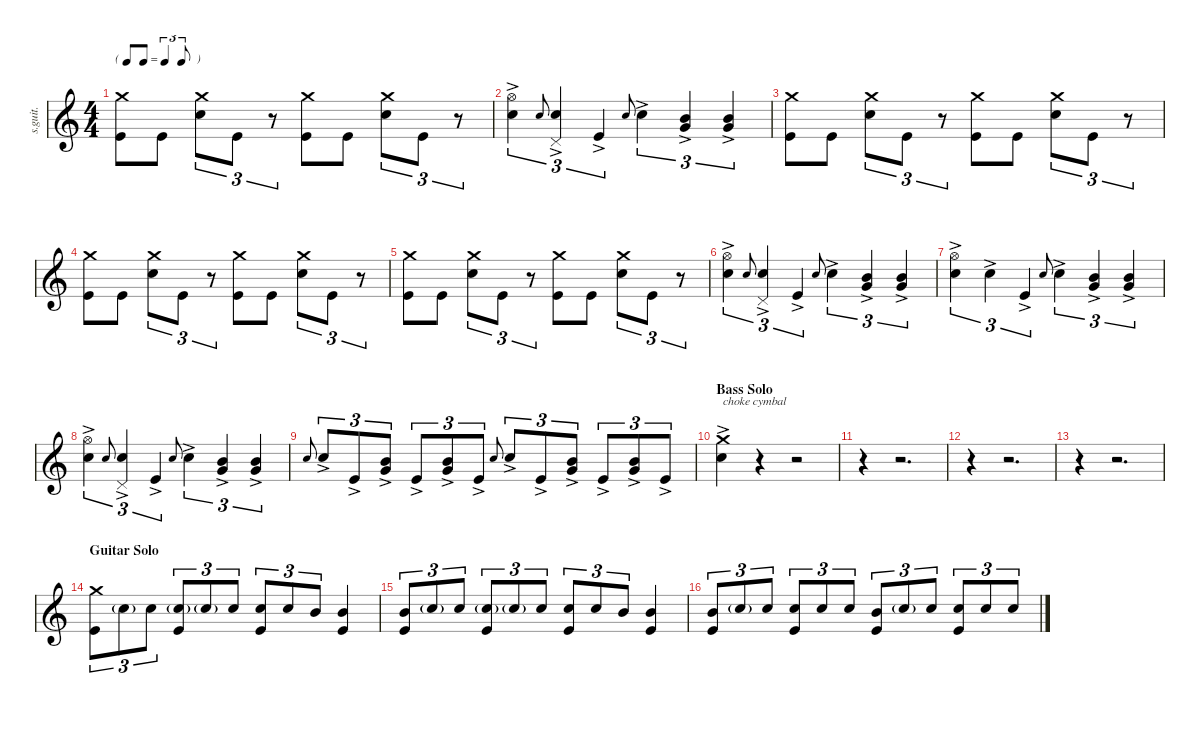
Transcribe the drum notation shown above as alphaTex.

\defaultSystemsLayout 4
\hideDynamics
\bracketExtendMode nobrackets
\track ("Dave Grohl" "s.guit.") {instrument percussion}
\staff {score}
\articulation defaults
\ts (4 4)
\tf triplet8th
\tempo (171 hide)
\clef g2
\ks c
("Kick (hit)" "Crash medium (hit)").8{lyrics (0 "") lyrics (1 "") lyrics (2 "") lyrics (3 "") lyrics (4 "") dy mf} "Kick (hit)".8{lyrics (0 "") lyrics (1 "") lyrics (2 "") lyrics (3 "") lyrics (4 "")} ("Crash medium (hit)" "Snare (hit) 2").8{tu (3 2) lyrics (0 "") lyrics (1 "") lyrics (2 "") lyrics (3 "") lyrics (4 "")} "Kick (hit)".8{tu (3 2) lyrics (0 "") lyrics (1 "") lyrics (2 "") lyrics (3 "") lyrics (4 "")} r.8{tu (3 2)} ("Kick (hit)" "Crash medium (hit)").8{lyrics (0 "") lyrics (1 "") lyrics (2 "") lyrics (3 "") lyrics (4 "")} "Kick (hit)".8{lyrics (0 "") lyrics (1 "") lyrics (2 "") lyrics (3 "") lyrics (4 "")} ("Crash medium (hit)" "Snare (hit) 2").8{tu (3 2) lyrics (0 "") lyrics (1 "") lyrics (2 "") lyrics (3 "") lyrics (4 "")} "Kick (hit)".8{tu (3 2) lyrics (0 "") lyrics (1 "") lyrics (2 "") lyrics (3 "") lyrics (4 "")} r.8{tu (3 2)} |
("Hi-Hat (open)"{ac} "Snare (hit) 2").4{tu (3 2) lyrics (0 "") lyrics (1 "") lyrics (2 "") lyrics (3 "") lyrics (4 "") dy ppp} "Snare (hit) 2".8{tu (3 2) lyrics (0 "") lyrics (1 "") lyrics (2 "") lyrics (3 "") lyrics (4 "") gr onbeat} ("Snare (hit) 2"{ac} "Pedal Hi-Hat (hit)").4{tu (3 2) lyrics (0 "") lyrics (1 "") lyrics (2 "") lyrics (3 "") lyrics (4 "")} "Kick (hit)"{ac}.4{tu (3 2) lyrics (0 "") lyrics (1 "") lyrics (2 "") lyrics (3 "") lyrics (4 "")} "Snare (hit) 2".8{lyrics (0 "") lyrics (1 "") lyrics (2 "") lyrics (3 "") lyrics (4 "") gr onbeat} "Snare (hit) 2"{ac}.4{tu (3 2) lyrics (0 "") lyrics (1 "") lyrics (2 "") lyrics (3 "") lyrics (4 "")} ("Mid Tom (hit)"{ac} "Very Low Tom (hit)"{ac}).4{tu (3 2) lyrics (0 "") lyrics (1 "") lyrics (2 "") lyrics (3 "") lyrics (4 "")} ("Very Low Tom (hit)"{ac} "Mid Tom (hit)"{ac}).4{tu (3 2) lyrics (0 "") lyrics (1 "") lyrics (2 "") lyrics (3 "") lyrics (4 "")} |
("Kick (hit)" "Crash medium (hit)").8{lyrics (0 "") lyrics (1 "") lyrics (2 "") lyrics (3 "") lyrics (4 "") dy mf} "Kick (hit)".8{lyrics (0 "") lyrics (1 "") lyrics (2 "") lyrics (3 "") lyrics (4 "")} ("Crash medium (hit)" "Snare (hit) 2").8{tu (3 2) lyrics (0 "") lyrics (1 "") lyrics (2 "") lyrics (3 "") lyrics (4 "")} "Kick (hit)".8{tu (3 2) lyrics (0 "") lyrics (1 "") lyrics (2 "") lyrics (3 "") lyrics (4 "")} r.8{tu (3 2)} ("Kick (hit)" "Crash medium (hit)").8{lyrics (0 "") lyrics (1 "") lyrics (2 "") lyrics (3 "") lyrics (4 "")} "Kick (hit)".8{lyrics (0 "") lyrics (1 "") lyrics (2 "") lyrics (3 "") lyrics (4 "")} ("Crash medium (hit)" "Snare (hit) 2").8{tu (3 2) lyrics (0 "") lyrics (1 "") lyrics (2 "") lyrics (3 "") lyrics (4 "")} "Kick (hit)".8{tu (3 2) lyrics (0 "") lyrics (1 "") lyrics (2 "") lyrics (3 "") lyrics (4 "")} r.8{tu (3 2)} |
("Kick (hit)" "Crash medium (hit)").8{lyrics (0 "") lyrics (1 "") lyrics (2 "") lyrics (3 "") lyrics (4 "")} "Kick (hit)".8{lyrics (0 "") lyrics (1 "") lyrics (2 "") lyrics (3 "") lyrics (4 "")} ("Crash medium (hit)" "Snare (hit) 2").8{tu (3 2) lyrics (0 "") lyrics (1 "") lyrics (2 "") lyrics (3 "") lyrics (4 "")} "Kick (hit)".8{tu (3 2) lyrics (0 "") lyrics (1 "") lyrics (2 "") lyrics (3 "") lyrics (4 "")} r.8{tu (3 2)} ("Kick (hit)" "Crash medium (hit)").8{lyrics (0 "") lyrics (1 "") lyrics (2 "") lyrics (3 "") lyrics (4 "")} "Kick (hit)".8{lyrics (0 "") lyrics (1 "") lyrics (2 "") lyrics (3 "") lyrics (4 "")} ("Crash medium (hit)" "Snare (hit) 2").8{tu (3 2) lyrics (0 "") lyrics (1 "") lyrics (2 "") lyrics (3 "") lyrics (4 "")} "Kick (hit)".8{tu (3 2) lyrics (0 "") lyrics (1 "") lyrics (2 "") lyrics (3 "") lyrics (4 "")} r.8{tu (3 2)} |
("Kick (hit)" "Crash medium (hit)").8{lyrics (0 "") lyrics (1 "") lyrics (2 "") lyrics (3 "") lyrics (4 "")} "Kick (hit)".8{lyrics (0 "") lyrics (1 "") lyrics (2 "") lyrics (3 "") lyrics (4 "")} ("Crash medium (hit)" "Snare (hit) 2").8{tu (3 2) lyrics (0 "") lyrics (1 "") lyrics (2 "") lyrics (3 "") lyrics (4 "")} "Kick (hit)".8{tu (3 2) lyrics (0 "") lyrics (1 "") lyrics (2 "") lyrics (3 "") lyrics (4 "")} r.8{tu (3 2)} ("Kick (hit)" "Crash medium (hit)").8{lyrics (0 "") lyrics (1 "") lyrics (2 "") lyrics (3 "") lyrics (4 "")} "Kick (hit)".8{lyrics (0 "") lyrics (1 "") lyrics (2 "") lyrics (3 "") lyrics (4 "")} ("Crash medium (hit)" "Snare (hit) 2").8{tu (3 2) lyrics (0 "") lyrics (1 "") lyrics (2 "") lyrics (3 "") lyrics (4 "")} "Kick (hit)".8{tu (3 2) lyrics (0 "") lyrics (1 "") lyrics (2 "") lyrics (3 "") lyrics (4 "")} r.8{tu (3 2)} |
("Hi-Hat (open)"{ac} "Snare (hit) 2").4{tu (3 2) lyrics (0 "") lyrics (1 "") lyrics (2 "") lyrics (3 "") lyrics (4 "") dy ppp} "Snare (hit) 2".8{tu (3 2) lyrics (0 "") lyrics (1 "") lyrics (2 "") lyrics (3 "") lyrics (4 "") gr onbeat} ("Snare (hit) 2"{ac} "Pedal Hi-Hat (hit)").4{tu (3 2) lyrics (0 "") lyrics (1 "") lyrics (2 "") lyrics (3 "") lyrics (4 "")} "Kick (hit)"{ac}.4{tu (3 2) lyrics (0 "") lyrics (1 "") lyrics (2 "") lyrics (3 "") lyrics (4 "")} "Snare (hit) 2".8{lyrics (0 "") lyrics (1 "") lyrics (2 "") lyrics (3 "") lyrics (4 "") gr onbeat} "Snare (hit) 2"{ac}.4{tu (3 2) lyrics (0 "") lyrics (1 "") lyrics (2 "") lyrics (3 "") lyrics (4 "")} ("Mid Tom (hit)"{ac} "Very Low Tom (hit)"{ac}).4{tu (3 2) lyrics (0 "") lyrics (1 "") lyrics (2 "") lyrics (3 "") lyrics (4 "")} ("Very Low Tom (hit)"{ac} "Mid Tom (hit)"{ac}).4{tu (3 2) lyrics (0 "") lyrics (1 "") lyrics (2 "") lyrics (3 "") lyrics (4 "")} |
("Hi-Hat (open)"{ac} "Snare (hit) 2").4{tu (3 2) lyrics (0 "") lyrics (1 "") lyrics (2 "") lyrics (3 "") lyrics (4 "")} "Snare (hit) 2"{ac}.4{tu (3 2) lyrics (0 "") lyrics (1 "") lyrics (2 "") lyrics (3 "") lyrics (4 "")} "Kick (hit)"{ac}.4{tu (3 2) lyrics (0 "") lyrics (1 "") lyrics (2 "") lyrics (3 "") lyrics (4 "")} "Snare (hit) 2".8{lyrics (0 "") lyrics (1 "") lyrics (2 "") lyrics (3 "") lyrics (4 "") gr onbeat} "Snare (hit) 2"{ac}.4{tu (3 2) lyrics (0 "") lyrics (1 "") lyrics (2 "") lyrics (3 "") lyrics (4 "")} ("Mid Tom (hit)"{ac} "Very Low Tom (hit)"{ac}).4{tu (3 2) lyrics (0 "") lyrics (1 "") lyrics (2 "") lyrics (3 "") lyrics (4 "")} ("Very Low Tom (hit)"{ac} "Mid Tom (hit)"{ac}).4{tu (3 2) lyrics (0 "") lyrics (1 "") lyrics (2 "") lyrics (3 "") lyrics (4 "")} |
("Hi-Hat (open)"{ac} "Snare (hit) 2").4{tu (3 2) lyrics (0 "") lyrics (1 "") lyrics (2 "") lyrics (3 "") lyrics (4 "")} "Snare (hit) 2".8{tu (3 2) lyrics (0 "") lyrics (1 "") lyrics (2 "") lyrics (3 "") lyrics (4 "") gr onbeat} ("Snare (hit) 2"{ac} "Pedal Hi-Hat (hit)").4{tu (3 2) lyrics (0 "") lyrics (1 "") lyrics (2 "") lyrics (3 "") lyrics (4 "")} "Kick (hit)"{ac}.4{tu (3 2) lyrics (0 "") lyrics (1 "") lyrics (2 "") lyrics (3 "") lyrics (4 "")} "Snare (hit) 2".8{lyrics (0 "") lyrics (1 "") lyrics (2 "") lyrics (3 "") lyrics (4 "") gr onbeat} "Snare (hit) 2"{ac}.4{tu (3 2) lyrics (0 "") lyrics (1 "") lyrics (2 "") lyrics (3 "") lyrics (4 "")} ("Mid Tom (hit)"{ac} "Very Low Tom (hit)"{ac}).4{tu (3 2) lyrics (0 "") lyrics (1 "") lyrics (2 "") lyrics (3 "") lyrics (4 "")} ("Very Low Tom (hit)"{ac} "Mid Tom (hit)"{ac}).4{tu (3 2) lyrics (0 "") lyrics (1 "") lyrics (2 "") lyrics (3 "") lyrics (4 "")} |
"Snare (hit) 2".8{lyrics (0 "") lyrics (1 "") lyrics (2 "") lyrics (3 "") lyrics (4 "") gr onbeat} "Snare (hit) 2"{ac}.8{tu (3 2) lyrics (0 "") lyrics (1 "") lyrics (2 "") lyrics (3 "") lyrics (4 "")} "Kick (hit)"{ac}.8{tu (3 2) lyrics (0 "") lyrics (1 "") lyrics (2 "") lyrics (3 "") lyrics (4 "")} ("Mid Tom (hit)"{ac} "Very Low Tom (hit)"{ac}).8{tu (3 2) lyrics (0 "") lyrics (1 "") lyrics (2 "") lyrics (3 "") lyrics (4 "")} "Kick (hit)"{ac}.8{tu (3 2) lyrics (0 "") lyrics (1 "") lyrics (2 "") lyrics (3 "") lyrics (4 "")} ("Mid Tom (hit)"{ac} "Very Low Tom (hit)"{ac}).8{tu (3 2) lyrics (0 "") lyrics (1 "") lyrics (2 "") lyrics (3 "") lyrics (4 "")} "Kick (hit)"{ac}.8{tu (3 2) lyrics (0 "") lyrics (1 "") lyrics (2 "") lyrics (3 "") lyrics (4 "")} "Snare (hit) 2".8{lyrics (0 "") lyrics (1 "") lyrics (2 "") lyrics (3 "") lyrics (4 "") gr onbeat} "Snare (hit) 2"{ac}.8{tu (3 2) lyrics (0 "") lyrics (1 "") lyrics (2 "") lyrics (3 "") lyrics (4 "")} "Kick (hit)"{ac}.8{tu (3 2) lyrics (0 "") lyrics (1 "") lyrics (2 "") lyrics (3 "") lyrics (4 "")} ("Very Low Tom (hit)"{ac} "Mid Tom (hit)"{ac}).8{tu (3 2) lyrics (0 "") lyrics (1 "") lyrics (2 "") lyrics (3 "") lyrics (4 "")} "Kick (hit)"{ac}.8{tu (3 2) lyrics (0 "") lyrics (1 "") lyrics (2 "") lyrics (3 "") lyrics (4 "")} ("Very Low Tom (hit)"{ac} "Mid Tom (hit)"{ac}).8{tu (3 2) lyrics (0 "") lyrics (1 "") lyrics (2 "") lyrics (3 "") lyrics (4 "")} "Kick (hit)"{ac}.8{tu (3 2) lyrics (0 "") lyrics (1 "") lyrics (2 "") lyrics (3 "") lyrics (4 "")} |
\section ("" "Bass Solo")
("Snare (hit) 2"{ac} "Crash medium (hit)"{ac}).4{txt "choke cymbal" lyrics (0 "") lyrics (1 "") lyrics (2 "") lyrics (3 "") lyrics (4 "")} r.4 r.2 |
r.4 r.2{d} |
r.4 r.2{d} |
r.4 r.2{d} |
\section ("" "Guitar Solo")
("Kick (hit)" "Crash medium (hit)").8{tu (3 2) lyrics (0 "") lyrics (1 "") lyrics (2 "") lyrics (3 "") lyrics (4 "") dy mf} "Snare (hit) 2"{g}.8{tu (3 2) lyrics (0 "") lyrics (1 "") lyrics (2 "") lyrics (3 "") lyrics (4 "") dy fff} "Snare (hit) 2".8{tu (3 2) lyrics (0 "") lyrics (1 "") lyrics (2 "") lyrics (3 "") lyrics (4 "") dy mf} ("Kick (hit)" "Snare (hit) 2"{g}).8{tu (3 2) lyrics (0 "") lyrics (1 "") lyrics (2 "") lyrics (3 "") lyrics (4 "")} "Snare (hit) 2"{g}.8{tu (3 2) lyrics (0 "") lyrics (1 "") lyrics (2 "") lyrics (3 "") lyrics (4 "") dy fff} "Snare (hit) 2".8{tu (3 2) lyrics (0 "") lyrics (1 "") lyrics (2 "") lyrics (3 "") lyrics (4 "") dy mf} ("Kick (hit)" "Snare (hit) 2").8{tu (3 2) lyrics (0 "") lyrics (1 "") lyrics (2 "") lyrics (3 "") lyrics (4 "")} "Snare (hit) 2".8{tu (3 2) lyrics (0 "") lyrics (1 "") lyrics (2 "") lyrics (3 "") lyrics (4 "")} "Mid Tom (hit)".8{tu (3 2) lyrics (0 "") lyrics (1 "") lyrics (2 "") lyrics (3 "") lyrics (4 "")} ("Kick (hit)" "Mid Tom (hit)").4{lyrics (0 "") lyrics (1 "") lyrics (2 "") lyrics (3 "") lyrics (4 "")} |
("Kick (hit)" "Mid Tom (hit)").8{tu (3 2) lyrics (0 "") lyrics (1 "") lyrics (2 "") lyrics (3 "") lyrics (4 "")} "Snare (hit) 2"{g}.8{tu (3 2) lyrics (0 "") lyrics (1 "") lyrics (2 "") lyrics (3 "") lyrics (4 "") dy fff} "Snare (hit) 2".8{tu (3 2) lyrics (0 "") lyrics (1 "") lyrics (2 "") lyrics (3 "") lyrics (4 "") dy mf} ("Kick (hit)" "Snare (hit) 2"{g}).8{tu (3 2) lyrics (0 "") lyrics (1 "") lyrics (2 "") lyrics (3 "") lyrics (4 "")} "Snare (hit) 2"{g}.8{tu (3 2) lyrics (0 "") lyrics (1 "") lyrics (2 "") lyrics (3 "") lyrics (4 "") dy fff} "Snare (hit) 2".8{tu (3 2) lyrics (0 "") lyrics (1 "") lyrics (2 "") lyrics (3 "") lyrics (4 "") dy mf} ("Kick (hit)" "Snare (hit) 2").8{tu (3 2) lyrics (0 "") lyrics (1 "") lyrics (2 "") lyrics (3 "") lyrics (4 "")} "Snare (hit) 2".8{tu (3 2) lyrics (0 "") lyrics (1 "") lyrics (2 "") lyrics (3 "") lyrics (4 "")} "Mid Tom (hit)".8{tu (3 2) lyrics (0 "") lyrics (1 "") lyrics (2 "") lyrics (3 "") lyrics (4 "")} ("Kick (hit)" "Mid Tom (hit)").4{lyrics (0 "") lyrics (1 "") lyrics (2 "") lyrics (3 "") lyrics (4 "")} |
("Kick (hit)" "Mid Tom (hit)").8{tu (3 2) lyrics (0 "") lyrics (1 "") lyrics (2 "") lyrics (3 "") lyrics (4 "")} "Snare (hit) 2"{g}.8{tu (3 2) lyrics (0 "") lyrics (1 "") lyrics (2 "") lyrics (3 "") lyrics (4 "") dy fff} "Snare (hit) 2".8{tu (3 2) lyrics (0 "") lyrics (1 "") lyrics (2 "") lyrics (3 "") lyrics (4 "") dy mf} ("Kick (hit)" "Snare (hit) 2").8{tu (3 2) lyrics (0 "") lyrics (1 "") lyrics (2 "") lyrics (3 "") lyrics (4 "")} "Snare (hit) 2".8{tu (3 2) lyrics (0 "") lyrics (1 "") lyrics (2 "") lyrics (3 "") lyrics (4 "")} "Snare (hit) 2".8{tu (3 2) lyrics (0 "") lyrics (1 "") lyrics (2 "") lyrics (3 "") lyrics (4 "")} ("Kick (hit)" "Mid Tom (hit)").8{tu (3 2) lyrics (0 "") lyrics (1 "") lyrics (2 "") lyrics (3 "") lyrics (4 "")} "Snare (hit) 2"{g}.8{tu (3 2) lyrics (0 "") lyrics (1 "") lyrics (2 "") lyrics (3 "") lyrics (4 "") dy fff} "Snare (hit) 2".8{tu (3 2) lyrics (0 "") lyrics (1 "") lyrics (2 "") lyrics (3 "") lyrics (4 "") dy mf} ("Kick (hit)" "Snare (hit) 2").8{tu (3 2) lyrics (0 "") lyrics (1 "") lyrics (2 "") lyrics (3 "") lyrics (4 "")} "Snare (hit) 2".8{tu (3 2) lyrics (0 "") lyrics (1 "") lyrics (2 "") lyrics (3 "") lyrics (4 "")} "Snare (hit) 2".8{tu (3 2) lyrics (0 "") lyrics (1 "") lyrics (2 "") lyrics (3 "") lyrics (4 "")}
